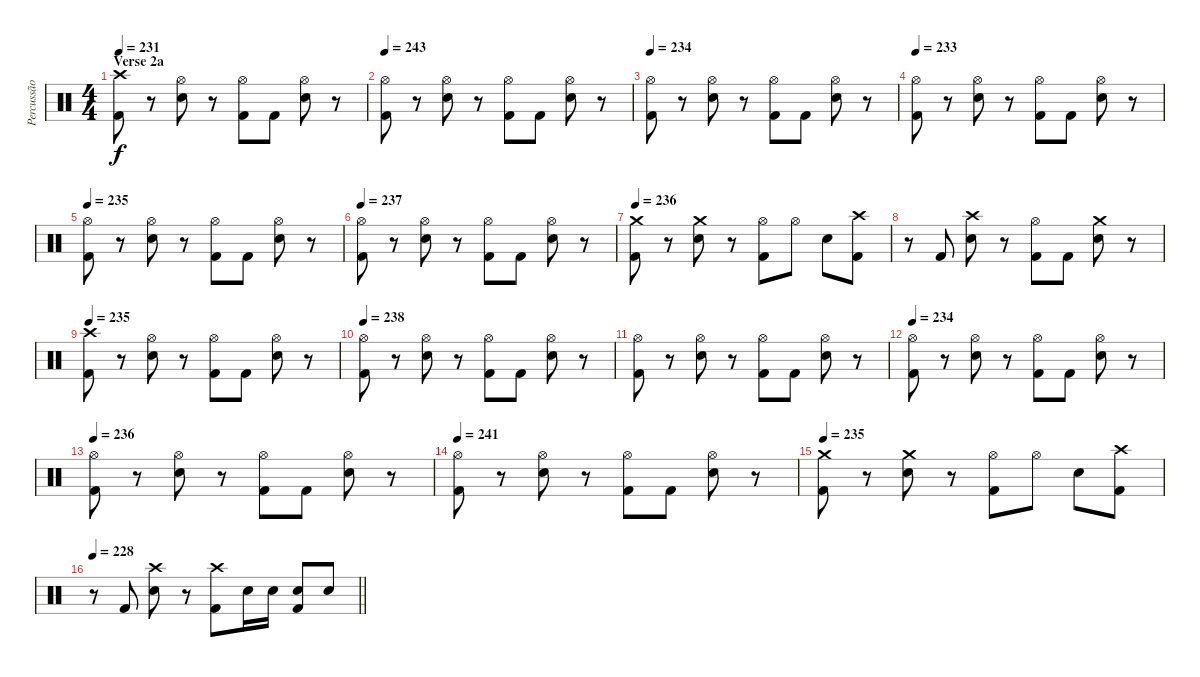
\track ("Percussão" "Percussão") {instrument percussion}
\staff {score}
\articulation defaults
\ts (4 4)
\section ("" "Verse 2a")
\tempo 231
\clef neutral
\ks c
("Crash high (hit)" "Kick (hit) 2").8{dy f} r.8 ("Hi-Hat (open)" "Electric Snare (hit)").8 r.8 ("Hi-Hat (open)" "Kick (hit) 2").8 "Kick (hit) 2".8 ("Hi-Hat (open)" "Electric Snare (hit)").8 r.8 |
\tempo 243
("Hi-Hat (open)" "Kick (hit) 2").8 r.8 ("Hi-Hat (open)" "Electric Snare (hit)").8 r.8 ("Hi-Hat (open)" "Kick (hit) 2").8 "Kick (hit) 2".8 ("Hi-Hat (open)" "Electric Snare (hit)").8 r.8 |
\tempo 234
("Hi-Hat (open)" "Kick (hit) 2").8 r.8 ("Hi-Hat (open)" "Electric Snare (hit)").8 r.8 ("Hi-Hat (open)" "Kick (hit) 2").8 "Kick (hit) 2".8 ("Hi-Hat (open)" "Electric Snare (hit)").8 r.8 |
\tempo 233
("Hi-Hat (open)" "Kick (hit) 2").8 r.8 ("Hi-Hat (open)" "Electric Snare (hit)").8 r.8 ("Hi-Hat (open)" "Kick (hit) 2").8 "Kick (hit) 2".8 ("Hi-Hat (open)" "Electric Snare (hit)").8 r.8 |
\tempo 235
("Hi-Hat (open)" "Kick (hit) 2").8 r.8 ("Hi-Hat (open)" "Electric Snare (hit)").8 r.8 ("Hi-Hat (open)" "Kick (hit) 2").8 "Kick (hit) 2".8 ("Hi-Hat (open)" "Electric Snare (hit)").8 r.8 |
\tempo 237
("Hi-Hat (open)" "Kick (hit) 2").8 r.8 ("Hi-Hat (open)" "Electric Snare (hit)").8 r.8 ("Hi-Hat (open)" "Kick (hit) 2").8 "Kick (hit) 2".8 ("Hi-Hat (open)" "Electric Snare (hit)").8 r.8 |
\tempo 236
("Crash medium (hit)" "Kick (hit) 2").8 r.8 ("Crash medium (hit)" "Electric Snare (hit)").8 r.8 ("Hi-Hat (open)" "Kick (hit) 2").8 "Hi-Hat (open)".8 "Electric Snare (hit)".8 ("Crash high (hit)" "Kick (hit) 2").8 |
r.8 "Kick (hit) 2".8 ("Crash high (hit)" "Electric Snare (hit)").8 r.8 ("Hi-Hat (open)" "Kick (hit) 2").8 "Kick (hit) 2".8 ("Crash medium (hit)" "Electric Snare (hit)").8 r.8 |
\tempo 235
("Crash high (hit)" "Kick (hit) 2").8 r.8 ("Hi-Hat (open)" "Electric Snare (hit)").8 r.8 ("Hi-Hat (open)" "Kick (hit) 2").8 "Kick (hit) 2".8 ("Hi-Hat (open)" "Electric Snare (hit)").8 r.8 |
\tempo 238
("Hi-Hat (open)" "Kick (hit) 2").8 r.8 ("Hi-Hat (open)" "Electric Snare (hit)").8 r.8 ("Hi-Hat (open)" "Kick (hit) 2").8 "Kick (hit) 2".8 ("Hi-Hat (open)" "Electric Snare (hit)").8 r.8 |
("Hi-Hat (open)" "Kick (hit) 2").8 r.8 ("Hi-Hat (open)" "Electric Snare (hit)").8 r.8 ("Hi-Hat (open)" "Kick (hit) 2").8 "Kick (hit) 2".8 ("Hi-Hat (open)" "Electric Snare (hit)").8 r.8 |
\tempo 234
("Hi-Hat (open)" "Kick (hit) 2").8 r.8 ("Hi-Hat (open)" "Electric Snare (hit)").8 r.8 ("Hi-Hat (open)" "Kick (hit) 2").8 "Kick (hit) 2".8 ("Hi-Hat (open)" "Electric Snare (hit)").8 r.8 |
\tempo 236
("Hi-Hat (open)" "Kick (hit) 2").8 r.8 ("Hi-Hat (open)" "Electric Snare (hit)").8 r.8 ("Hi-Hat (open)" "Kick (hit) 2").8 "Kick (hit) 2".8 ("Hi-Hat (open)" "Electric Snare (hit)").8 r.8 |
\tempo 241
("Hi-Hat (open)" "Kick (hit) 2").8 r.8 ("Hi-Hat (open)" "Electric Snare (hit)").8 r.8 ("Hi-Hat (open)" "Kick (hit) 2").8 "Kick (hit) 2".8 ("Hi-Hat (open)" "Electric Snare (hit)").8 r.8 |
\tempo 235
("Crash medium (hit)" "Kick (hit) 2").8 r.8 ("Crash medium (hit)" "Electric Snare (hit)").8 r.8 ("Hi-Hat (open)" "Kick (hit) 2").8 "Hi-Hat (open)".8 "Electric Snare (hit)".8 ("Crash high (hit)" "Kick (hit) 2").8 |
\tempo 228
\barLineRight lightlight
r.8 "Kick (hit) 2".8 ("Crash high (hit)" "Electric Snare (hit)").8 r.8 ("Crash high (hit)" "Kick (hit) 2").8 "Electric Snare (hit)".16 "Electric Snare (hit)".16 ("Electric Snare (hit)" "Kick (hit) 2").8 "Electric Snare (hit)".8
